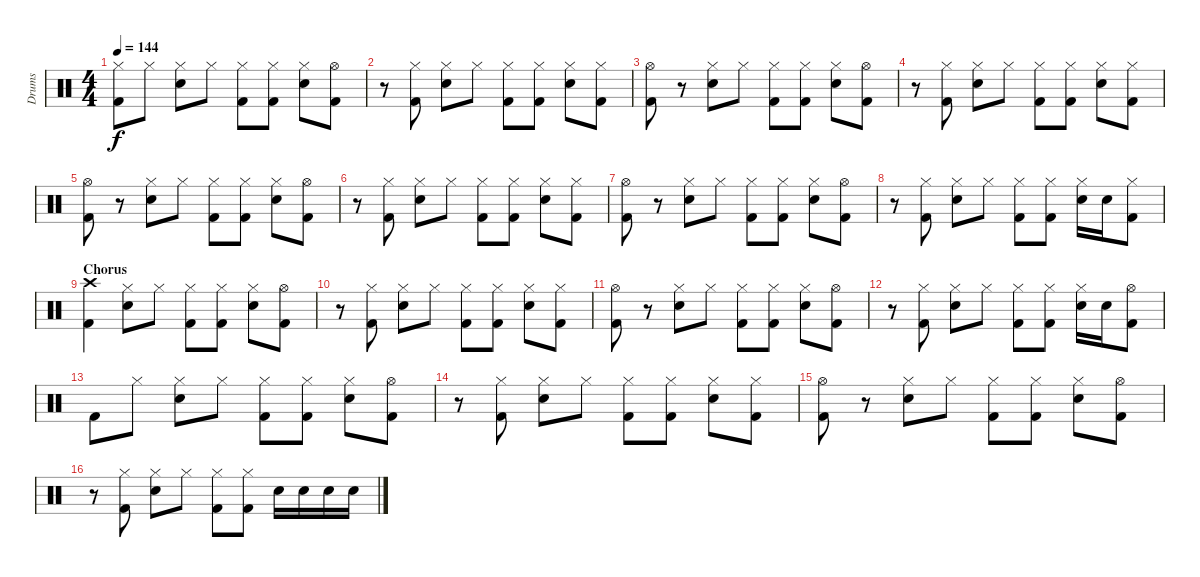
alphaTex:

\track ("Drums" "Drums") {instrument percussion}
\staff {score}
\articulation defaults
\ts (4 4)
\tempo 144
\clef neutral
\ks c
("Hi-Hat (closed)" "Kick (hit) 2").8{dy f} "Hi-Hat (closed)".8 ("Hi-Hat (closed)" "Snare (hit) 2").8 "Hi-Hat (closed)".8 ("Hi-Hat (closed)" "Kick (hit) 2").8 ("Hi-Hat (closed)" "Kick (hit) 2").8 ("Hi-Hat (closed)" "Snare (hit) 2").8 ("Hi-Hat (open)" "Kick (hit) 2").8 |
r.8 ("Hi-Hat (closed)" "Kick (hit) 2").8 ("Hi-Hat (closed)" "Snare (hit) 2").8 "Hi-Hat (closed)".8 ("Hi-Hat (closed)" "Kick (hit) 2").8 ("Hi-Hat (closed)" "Kick (hit) 2").8 ("Hi-Hat (closed)" "Snare (hit) 2").8 ("Hi-Hat (closed)" "Kick (hit) 2").8 |
("Hi-Hat (open)" "Kick (hit) 2").8 r.8 ("Hi-Hat (closed)" "Snare (hit) 2").8 "Hi-Hat (closed)".8 ("Hi-Hat (closed)" "Kick (hit) 2").8 ("Hi-Hat (closed)" "Kick (hit) 2").8 ("Hi-Hat (closed)" "Snare (hit) 2").8 ("Hi-Hat (open)" "Kick (hit) 2").8 |
r.8 ("Hi-Hat (closed)" "Kick (hit) 2").8 ("Hi-Hat (closed)" "Snare (hit) 2").8 "Hi-Hat (closed)".8 ("Hi-Hat (closed)" "Kick (hit) 2").8 ("Hi-Hat (closed)" "Kick (hit) 2").8 ("Hi-Hat (closed)" "Snare (hit) 2").8 ("Hi-Hat (closed)" "Kick (hit) 2").8 |
("Hi-Hat (open)" "Kick (hit) 2").8 r.8 ("Hi-Hat (closed)" "Snare (hit) 2").8 "Hi-Hat (closed)".8 ("Hi-Hat (closed)" "Kick (hit) 2").8 ("Hi-Hat (closed)" "Kick (hit) 2").8 ("Hi-Hat (closed)" "Snare (hit) 2").8 ("Hi-Hat (open)" "Kick (hit) 2").8 |
r.8 ("Hi-Hat (closed)" "Kick (hit) 2").8 ("Hi-Hat (closed)" "Snare (hit) 2").8 "Hi-Hat (closed)".8 ("Hi-Hat (closed)" "Kick (hit) 2").8 ("Hi-Hat (closed)" "Kick (hit) 2").8 ("Hi-Hat (closed)" "Snare (hit) 2").8 ("Hi-Hat (closed)" "Kick (hit) 2").8 |
("Hi-Hat (open)" "Kick (hit) 2").8 r.8 ("Hi-Hat (closed)" "Snare (hit) 2").8 "Hi-Hat (closed)".8 ("Hi-Hat (closed)" "Kick (hit) 2").8 ("Hi-Hat (closed)" "Kick (hit) 2").8 ("Hi-Hat (closed)" "Snare (hit) 2").8 ("Hi-Hat (open)" "Kick (hit) 2").8 |
r.8 ("Hi-Hat (closed)" "Kick (hit) 2").8 ("Hi-Hat (closed)" "Snare (hit) 2").8 "Hi-Hat (closed)".8 ("Hi-Hat (closed)" "Kick (hit) 2").8 ("Hi-Hat (closed)" "Kick (hit) 2").8 ("Hi-Hat (closed)" "Snare (hit) 2").16 "Snare (hit) 2".16 ("Hi-Hat (closed)" "Kick (hit) 2").8 |
\section ("" "Chorus")
("Crash high (hit)" "Kick (hit) 2").4 ("Hi-Hat (closed)" "Snare (hit) 2").8 "Hi-Hat (closed)".8 ("Hi-Hat (closed)" "Kick (hit) 2").8 ("Hi-Hat (closed)" "Kick (hit) 2").8 ("Hi-Hat (closed)" "Snare (hit) 2").8 ("Hi-Hat (open)" "Kick (hit) 2").8 |
r.8 ("Hi-Hat (closed)" "Kick (hit) 2").8 ("Hi-Hat (closed)" "Snare (hit) 2").8 "Hi-Hat (closed)".8 ("Hi-Hat (closed)" "Kick (hit) 2").8 ("Hi-Hat (closed)" "Kick (hit) 2").8 ("Hi-Hat (closed)" "Snare (hit) 2").8 ("Hi-Hat (closed)" "Kick (hit) 2").8 |
("Hi-Hat (open)" "Kick (hit) 2").8 r.8 ("Hi-Hat (closed)" "Snare (hit) 2").8 "Hi-Hat (closed)".8 ("Hi-Hat (closed)" "Kick (hit) 2").8 ("Hi-Hat (closed)" "Kick (hit) 2").8 ("Hi-Hat (closed)" "Snare (hit) 2").8 ("Hi-Hat (open)" "Kick (hit) 2").8 |
r.8 ("Hi-Hat (closed)" "Kick (hit) 2").8 ("Hi-Hat (closed)" "Snare (hit) 2").8 "Hi-Hat (closed)".8 ("Hi-Hat (closed)" "Kick (hit) 2").8 ("Hi-Hat (closed)" "Kick (hit) 2").8 ("Hi-Hat (closed)" "Snare (hit) 2").16 "Snare (hit) 2".16 ("Hi-Hat (open)" "Kick (hit) 2").8 |
"Kick (hit) 2".8 "Hi-Hat (closed)".8 ("Hi-Hat (closed)" "Snare (hit) 2").8 "Hi-Hat (closed)".8 ("Hi-Hat (closed)" "Kick (hit) 2").8 ("Hi-Hat (closed)" "Kick (hit) 2").8 ("Hi-Hat (closed)" "Snare (hit) 2").8 ("Hi-Hat (open)" "Kick (hit) 2").8 |
r.8 ("Hi-Hat (closed)" "Kick (hit) 2").8 ("Hi-Hat (closed)" "Snare (hit) 2").8 "Hi-Hat (closed)".8 ("Hi-Hat (closed)" "Kick (hit) 2").8 ("Hi-Hat (closed)" "Kick (hit) 2").8 ("Hi-Hat (closed)" "Snare (hit) 2").8 ("Hi-Hat (closed)" "Kick (hit) 2").8 |
("Hi-Hat (open)" "Kick (hit) 2").8 r.8 ("Hi-Hat (closed)" "Snare (hit) 2").8 "Hi-Hat (closed)".8 ("Hi-Hat (closed)" "Kick (hit) 2").8 ("Hi-Hat (closed)" "Kick (hit) 2").8 ("Hi-Hat (closed)" "Snare (hit) 2").8 ("Hi-Hat (open)" "Kick (hit) 2").8 |
r.8 ("Hi-Hat (closed)" "Kick (hit) 2").8 ("Hi-Hat (closed)" "Snare (hit) 2").8 "Hi-Hat (closed)".8 ("Hi-Hat (closed)" "Kick (hit) 2").8 ("Hi-Hat (closed)" "Kick (hit) 2").8 "Snare (hit) 2".16 "Snare (hit) 2".16 "Snare (hit) 2".16 "Snare (hit) 2".16
